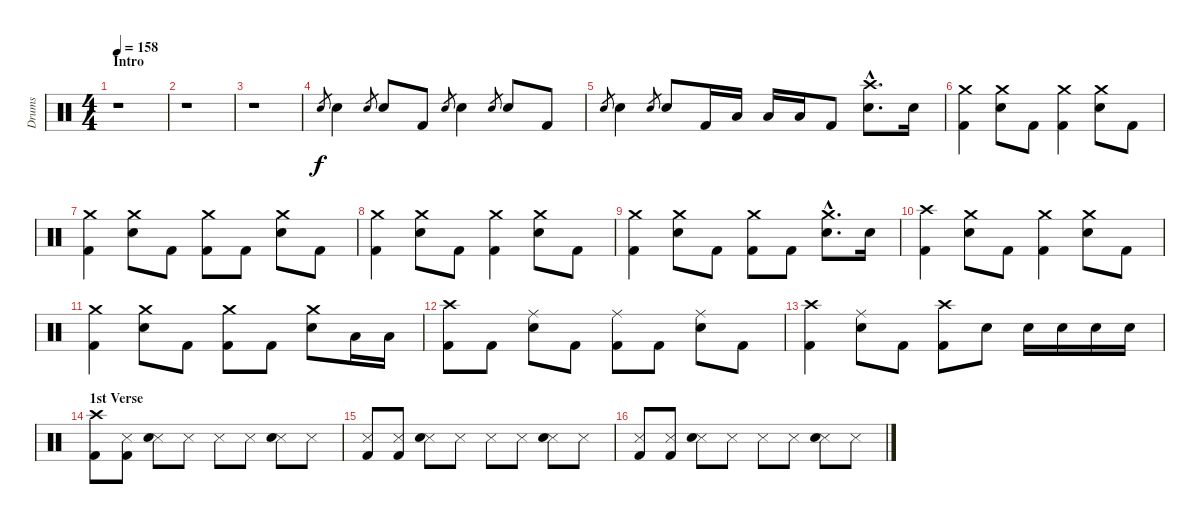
\track ("Drums" "Drums") {instrument percussion}
\staff {score}
\articulation defaults
\ts (4 4)
\section ("" "Intro")
\tempo 158
\clef neutral
\ks c
r.1{dy f} |
r.1 |
r.1 |
"Snare (hit) 2".8{gr} "Snare (hit) 2".4 "Snare (hit) 2".8{gr} "Snare (hit) 2".8 "Kick (hit) 2".8 "Snare (hit) 2".8{gr} "Snare (hit) 2".4 "Snare (hit) 2".8{gr} "Snare (hit) 2".8 "Kick (hit) 2".8 |
"Snare (hit) 2".8{gr} "Snare (hit) 2".4 "Snare (hit) 2".8{gr} "Snare (hit) 2".8 "Kick (hit) 2".16 "Low Tom (hit)".16 "Low Tom (hit)".16 "Low Tom (hit)".16 "Kick (hit) 2".8 ("Crash high (hit)"{hac} "Snare (hit) 2"{hac}).8{d} "Snare (hit) 2".16 |
("Crash medium (hit)" "Kick (hit) 2").4 ("Crash medium (hit)" "Snare (hit) 2").8 "Kick (hit) 2".8 ("Crash medium (hit)" "Kick (hit) 2").4 ("Crash medium (hit)" "Snare (hit) 2").8 "Kick (hit) 2".8 |
("Crash medium (hit)" "Kick (hit) 2").4 ("Crash medium (hit)" "Snare (hit) 2").8 "Kick (hit) 2".8 ("Crash medium (hit)" "Kick (hit) 2").8 "Kick (hit) 2".8 ("Crash medium (hit)" "Snare (hit) 2").8 "Kick (hit) 2".8 |
("Crash medium (hit)" "Kick (hit) 2").4 ("Crash medium (hit)" "Snare (hit) 2").8 "Kick (hit) 2".8 ("Crash medium (hit)" "Kick (hit) 2").4 ("Crash medium (hit)" "Snare (hit) 2").8 "Kick (hit) 2".8 |
("Crash medium (hit)" "Kick (hit) 2").4 ("Crash medium (hit)" "Snare (hit) 2").8 "Kick (hit) 2".8 ("Crash medium (hit)" "Kick (hit) 2").8 "Kick (hit) 2".8 ("Crash medium (hit)"{hac} "Snare (hit) 2"{hac}).8{d} "Snare (hit) 2".16 |
("Crash high (hit)" "Kick (hit) 2").4 ("Crash medium (hit)" "Snare (hit) 2").8 "Kick (hit) 2".8 ("Crash medium (hit)" "Kick (hit) 2").4 ("Crash medium (hit)" "Snare (hit) 2").8 "Kick (hit) 2".8 |
("Crash medium (hit)" "Kick (hit) 2").4 ("Crash medium (hit)" "Snare (hit) 2").8 "Kick (hit) 2".8 ("Crash medium (hit)" "Kick (hit) 2").8 "Kick (hit) 2".8 ("Crash medium (hit)" "Snare (hit) 2").8 "Low Tom (hit)".16 "Low Tom (hit)".16 |
("Crash high (hit)" "Kick (hit) 2").8 "Kick (hit) 2".8 ("Ride (middle)" "Snare (hit) 2").8 "Kick (hit) 2".8 ("Ride (middle)" "Kick (hit) 2").8 "Kick (hit) 2".8 ("Ride (middle)" "Snare (hit) 2").8 "Kick (hit) 2".8 |
("Crash high (hit)" "Kick (hit) 2").4 ("Ride (middle)" "Snare (hit) 2").8 "Kick (hit) 2".8 ("Crash high (hit)" "Kick (hit) 2").8 "Snare (hit) 2".8 "Snare (hit) 2".16 "Snare (hit) 2".16 "Snare (hit) 2".16 "Snare (hit) 2".16 |
\section ("" "1st Verse")
("Crash high (hit)" "Kick (hit) 2").8 ("Snare (side stick) 3" "Kick (hit) 2").8 ("Snare (side stick) 3" "Snare (hit) 2").8 "Snare (side stick) 3".8 "Snare (side stick) 3".8 "Snare (side stick) 3".8 ("Snare (side stick) 3" "Snare (hit) 2").8 "Snare (side stick) 3".8 |
("Snare (side stick) 3" "Kick (hit) 2").8 ("Snare (side stick) 3" "Kick (hit) 2").8 ("Snare (side stick) 3" "Snare (hit) 2").8 "Snare (side stick) 3".8 "Snare (side stick) 3".8 "Snare (side stick) 3".8 ("Snare (side stick) 3" "Snare (hit) 2").8 "Snare (side stick) 3".8 |
("Snare (side stick) 3" "Kick (hit) 2").8 ("Snare (side stick) 3" "Kick (hit) 2").8 ("Snare (side stick) 3" "Snare (hit) 2").8 "Snare (side stick) 3".8 "Snare (side stick) 3".8 "Snare (side stick) 3".8 ("Snare (side stick) 3" "Snare (hit) 2").8 "Snare (side stick) 3".8
